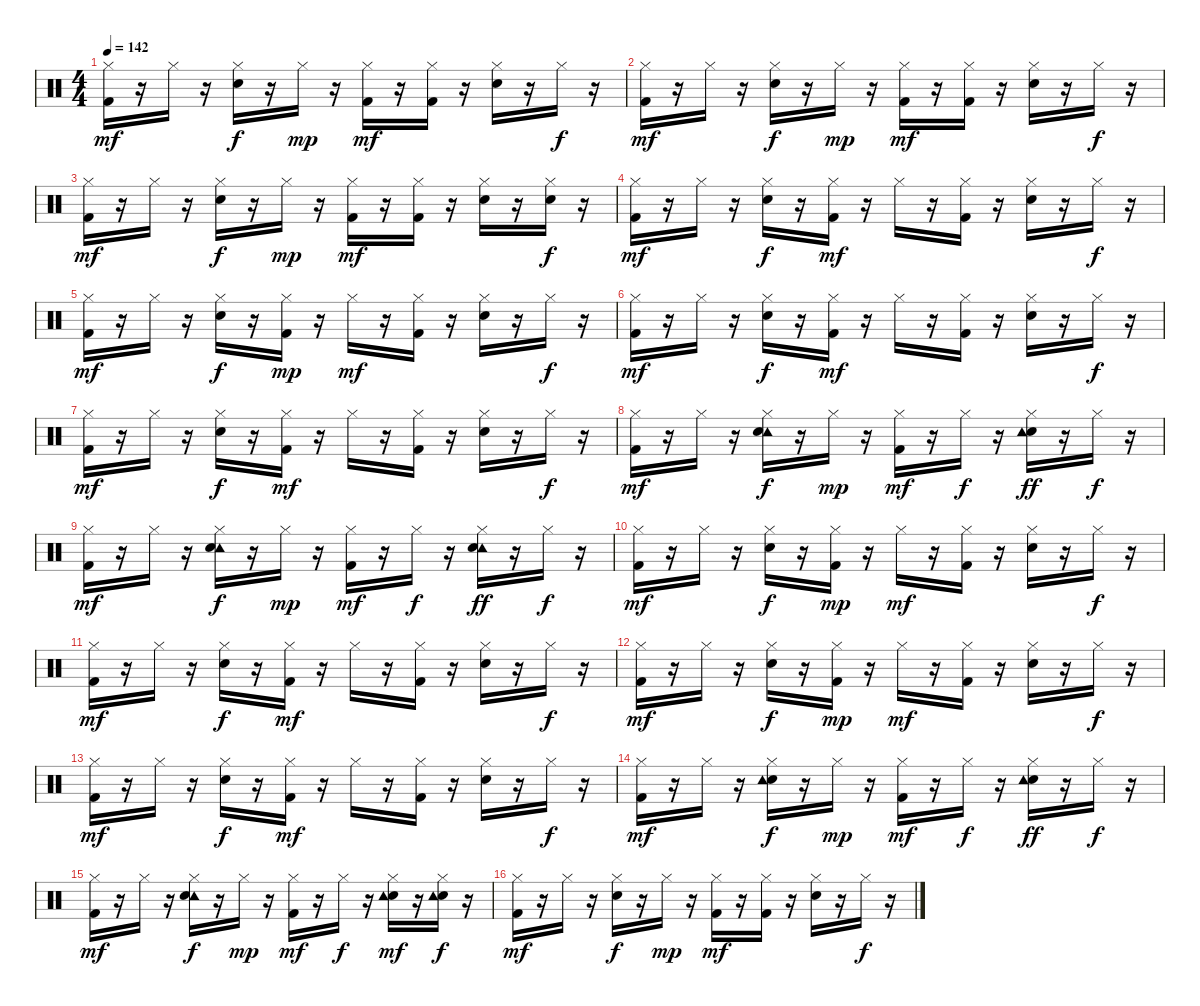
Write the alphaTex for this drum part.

\track "" {instrument percussion}
\staff {score}
\articulation defaults
\ts (4 4)
\tempo 142
\clef neutral
\ks c
("Hi-Hat (closed)" "Kick (hit) 2").16{dy mf} r.16 "Hi-Hat (closed)".16 r.16 ("Electric Snare (hit)" "Hi-Hat (closed)").16{dy f} r.16 "Hi-Hat (closed)".16{dy mp} r.16 ("Hi-Hat (closed)" "Kick (hit) 2").16{dy mf} r.16 ("Hi-Hat (closed)" "Kick (hit) 2").16 r.16 ("Hi-Hat (closed)" "Electric Snare (hit)").16 r.16 "Hi-Hat (closed)".16{dy f} r.16 |
("Kick (hit) 2" "Hi-Hat (closed)").16{dy mf} r.16 "Hi-Hat (closed)".16 r.16 ("Electric Snare (hit)" "Hi-Hat (closed)").16{dy f} r.16 "Hi-Hat (closed)".16{dy mp} r.16 ("Kick (hit) 2" "Hi-Hat (closed)").16{dy mf} r.16 ("Hi-Hat (closed)" "Kick (hit) 2").16 r.16 ("Hi-Hat (closed)" "Electric Snare (hit)").16 r.16 "Hi-Hat (closed)".16{dy f} r.16 |
("Kick (hit) 2" "Hi-Hat (closed)").16{dy mf} r.16 "Hi-Hat (closed)".16 r.16 ("Electric Snare (hit)" "Hi-Hat (closed)").16{dy f} r.16 "Hi-Hat (closed)".16{dy mp} r.16 ("Kick (hit) 2" "Hi-Hat (closed)").16{dy mf} r.16 ("Kick (hit) 2" "Hi-Hat (closed)").16 r.16 ("Hi-Hat (closed)" "Electric Snare (hit)").16 r.16 ("Hi-Hat (closed)" "Electric Snare (hit)").16{dy f} r.16 |
("Hi-Hat (closed)" "Kick (hit) 2").16{dy mf} r.16 "Hi-Hat (closed)".16 r.16 ("Hi-Hat (closed)" "Electric Snare (hit)").16{dy f} r.16 ("Hi-Hat (closed)" "Kick (hit) 2").16{dy mf} r.16 "Hi-Hat (closed)".16 r.16 ("Hi-Hat (closed)" "Kick (hit) 2").16 r.16 ("Hi-Hat (closed)" "Electric Snare (hit)").16 r.16 "Hi-Hat (closed)".16{dy f} r.16 |
("Kick (hit) 2" "Hi-Hat (closed)").16{dy mf} r.16 "Hi-Hat (closed)".16 r.16 ("Electric Snare (hit)" "Hi-Hat (closed)").16{dy f} r.16 ("Kick (hit) 2" "Hi-Hat (closed)").16{dy mp} r.16 "Hi-Hat (closed)".16{dy mf} r.16 ("Kick (hit) 2" "Hi-Hat (closed)").16 r.16 ("Electric Snare (hit)" "Hi-Hat (closed)").16 r.16 "Hi-Hat (closed)".16{dy f} r.16 |
("Kick (hit) 2" "Hi-Hat (closed)").16{dy mf} r.16 "Hi-Hat (closed)".16 r.16 ("Hi-Hat (closed)" "Electric Snare (hit)").16{dy f} r.16 ("Hi-Hat (closed)" "Kick (hit) 2").16{dy mf} r.16 "Hi-Hat (closed)".16 r.16 ("Hi-Hat (closed)" "Kick (hit) 2").16 r.16 ("Electric Snare (hit)" "Hi-Hat (closed)").16 r.16 "Hi-Hat (closed)".16{dy f} r.16 |
("Hi-Hat (closed)" "Kick (hit) 2").16{dy mf} r.16 "Hi-Hat (closed)".16 r.16 ("Hi-Hat (closed)" "Electric Snare (hit)").16{dy f} r.16 ("Hi-Hat (closed)" "Kick (hit) 2").16{dy mf} r.16 "Hi-Hat (closed)".16 r.16 ("Hi-Hat (closed)" "Kick (hit) 2").16 r.16 ("Electric Snare (hit)" "Hi-Hat (closed)").16 r.16 "Hi-Hat (closed)".16{dy f} r.16 |
("Kick (hit) 2" "Hi-Hat (closed)").16{dy mf} r.16 "Hi-Hat (closed)".16 r.16 ("Tambourine (hit)" "Hi-Hat (closed)" "Electric Snare (hit)").16{dy f} r.16 "Hi-Hat (closed)".16{dy mp} r.16 ("Hi-Hat (closed)" "Kick (hit) 2").16{dy mf} r.16 "Hi-Hat (closed)".16{dy f} r.16 ("Electric Snare (hit)" "Hi-Hat (closed)" "Tambourine (hit)").16{dy ff} r.16 "Hi-Hat (closed)".16{dy f} r.16 |
("Hi-Hat (closed)" "Kick (hit) 2").16{dy mf} r.16 "Hi-Hat (closed)".16 r.16 ("Hi-Hat (closed)" "Tambourine (hit)" "Electric Snare (hit)").16{dy f} r.16 "Hi-Hat (closed)".16{dy mp} r.16 ("Kick (hit) 2" "Hi-Hat (closed)").16{dy mf} r.16 "Hi-Hat (closed)".16{dy f} r.16 ("Hi-Hat (closed)" "Tambourine (hit)" "Electric Snare (hit)").16{dy ff} r.16 "Hi-Hat (closed)".16{dy f} r.16 |
("Kick (hit) 2" "Hi-Hat (closed)").16{dy mf} r.16 "Hi-Hat (closed)".16 r.16 ("Hi-Hat (closed)" "Electric Snare (hit)").16{dy f} r.16 ("Kick (hit) 2" "Hi-Hat (closed)").16{dy mp} r.16 "Hi-Hat (closed)".16{dy mf} r.16 ("Kick (hit) 2" "Hi-Hat (closed)").16 r.16 ("Electric Snare (hit)" "Hi-Hat (closed)").16 r.16 "Hi-Hat (closed)".16{dy f} r.16 |
("Kick (hit) 2" "Hi-Hat (closed)").16{dy mf} r.16 "Hi-Hat (closed)".16 r.16 ("Electric Snare (hit)" "Hi-Hat (closed)").16{dy f} r.16 ("Hi-Hat (closed)" "Kick (hit) 2").16{dy mf} r.16 "Hi-Hat (closed)".16 r.16 ("Hi-Hat (closed)" "Kick (hit) 2").16 r.16 ("Electric Snare (hit)" "Hi-Hat (closed)").16 r.16 "Hi-Hat (closed)".16{dy f} r.16 |
("Hi-Hat (closed)" "Kick (hit) 2").16{dy mf} r.16 "Hi-Hat (closed)".16 r.16 ("Hi-Hat (closed)" "Electric Snare (hit)").16{dy f} r.16 ("Kick (hit) 2" "Hi-Hat (closed)").16{dy mp} r.16 "Hi-Hat (closed)".16{dy mf} r.16 ("Kick (hit) 2" "Hi-Hat (closed)").16 r.16 ("Hi-Hat (closed)" "Electric Snare (hit)").16 r.16 "Hi-Hat (closed)".16{dy f} r.16 |
("Hi-Hat (closed)" "Kick (hit) 2").16{dy mf} r.16 "Hi-Hat (closed)".16 r.16 ("Hi-Hat (closed)" "Electric Snare (hit)").16{dy f} r.16 ("Hi-Hat (closed)" "Kick (hit) 2").16{dy mf} r.16 "Hi-Hat (closed)".16 r.16 ("Kick (hit) 2" "Hi-Hat (closed)").16 r.16 ("Hi-Hat (closed)" "Electric Snare (hit)").16 r.16 "Hi-Hat (closed)".16{dy f} r.16 |
("Kick (hit) 2" "Hi-Hat (closed)").16{dy mf} r.16 "Hi-Hat (closed)".16 r.16 ("Electric Snare (hit)" "Tambourine (hit)" "Hi-Hat (closed)").16{dy f} r.16 "Hi-Hat (closed)".16{dy mp} r.16 ("Hi-Hat (closed)" "Kick (hit) 2").16{dy mf} r.16 "Hi-Hat (closed)".16{dy f} r.16 ("Hi-Hat (closed)" "Electric Snare (hit)" "Tambourine (hit)").16{dy ff} r.16 "Hi-Hat (closed)".16{dy f} r.16 |
("Hi-Hat (closed)" "Kick (hit) 2").16{dy mf} r.16 "Hi-Hat (closed)".16 r.16 ("Tambourine (hit)" "Hi-Hat (closed)" "Electric Snare (hit)").16{dy f} r.16 "Hi-Hat (closed)".16{dy mp} r.16 ("Kick (hit) 2" "Hi-Hat (closed)").16{dy mf} r.16 "Hi-Hat (closed)".16{dy f} r.16 ("Electric Snare (hit)" "Tambourine (hit)" "Hi-Hat (closed)").16{dy mf} r.16 ("Electric Snare (hit)" "Tambourine (hit)" "Hi-Hat (closed)").16{dy f} r.16 |
("Hi-Hat (closed)" "Kick (hit) 2").16{dy mf} r.16 "Hi-Hat (closed)".16 r.16 ("Hi-Hat (closed)" "Electric Snare (hit)").16{dy f} r.16 "Hi-Hat (closed)".16{dy mp} r.16 ("Kick (hit) 2" "Hi-Hat (closed)").16{dy mf} r.16 ("Kick (hit) 2" "Hi-Hat (closed)").16 r.16 ("Hi-Hat (closed)" "Electric Snare (hit)").16 r.16 "Hi-Hat (closed)".16{dy f} r.16
